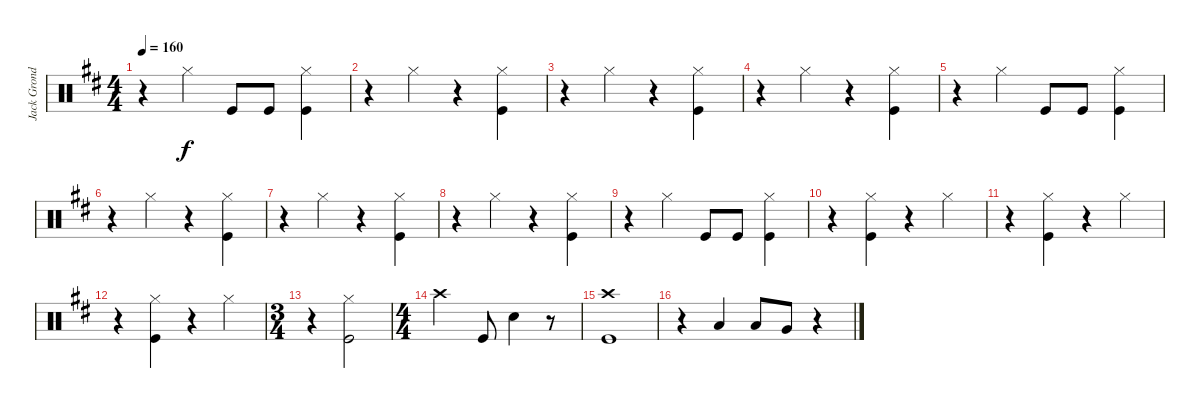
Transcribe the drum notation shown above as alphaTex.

\track ("Jack Grondin Drums" "Jack Grond") {instrument percussion}
\staff {score}
\articulation defaults
\ts (4 4)
\tempo 160
\clef neutral
\ks d
r.4{dy f} "Hi-Hat (closed)".4 "Kick (hit)".8 "Kick (hit)".8 ("Hi-Hat (closed)" "Kick (hit)").4 |
r.4 "Hi-Hat (closed)".4 r.4 ("Hi-Hat (closed)" "Kick (hit)").4 |
r.4 "Hi-Hat (closed)".4 r.4 ("Hi-Hat (closed)" "Kick (hit)").4 |
r.4 "Hi-Hat (closed)".4 r.4 ("Hi-Hat (closed)" "Kick (hit)").4 |
r.4 "Hi-Hat (closed)".4 "Kick (hit)".8 "Kick (hit)".8 ("Hi-Hat (closed)" "Kick (hit)").4 |
r.4 "Hi-Hat (closed)".4 r.4 ("Hi-Hat (closed)" "Kick (hit)").4 |
r.4 "Hi-Hat (closed)".4 r.4 ("Hi-Hat (closed)" "Kick (hit)").4 |
r.4 "Hi-Hat (closed)".4 r.4 ("Hi-Hat (closed)" "Kick (hit)").4 |
r.4 "Hi-Hat (closed)".4 "Kick (hit)".8 "Kick (hit)".8 ("Hi-Hat (closed)" "Kick (hit)").4 |
r.4 ("Hi-Hat (closed)" "Kick (hit)").4 r.4 "Hi-Hat (closed)".4 |
r.4 ("Hi-Hat (closed)" "Kick (hit)").4 r.4 "Hi-Hat (closed)".4 |
r.4 ("Hi-Hat (closed)" "Kick (hit)").4 r.4 "Hi-Hat (closed)".4 |
\ts (3 4)
r.4 ("Hi-Hat (closed)" "Kick (hit)").2 |
\ts (4 4)
"Crash high (hit)".2 "Kick (hit)".8 "Snare (hit) 2".4 r.8 |
("Crash high (hit)" "Kick (hit)").1 |
r.4 "Low Tom (hit)".4 "Low Tom (hit)".8 "Very Low Tom (hit)".8 r.4
